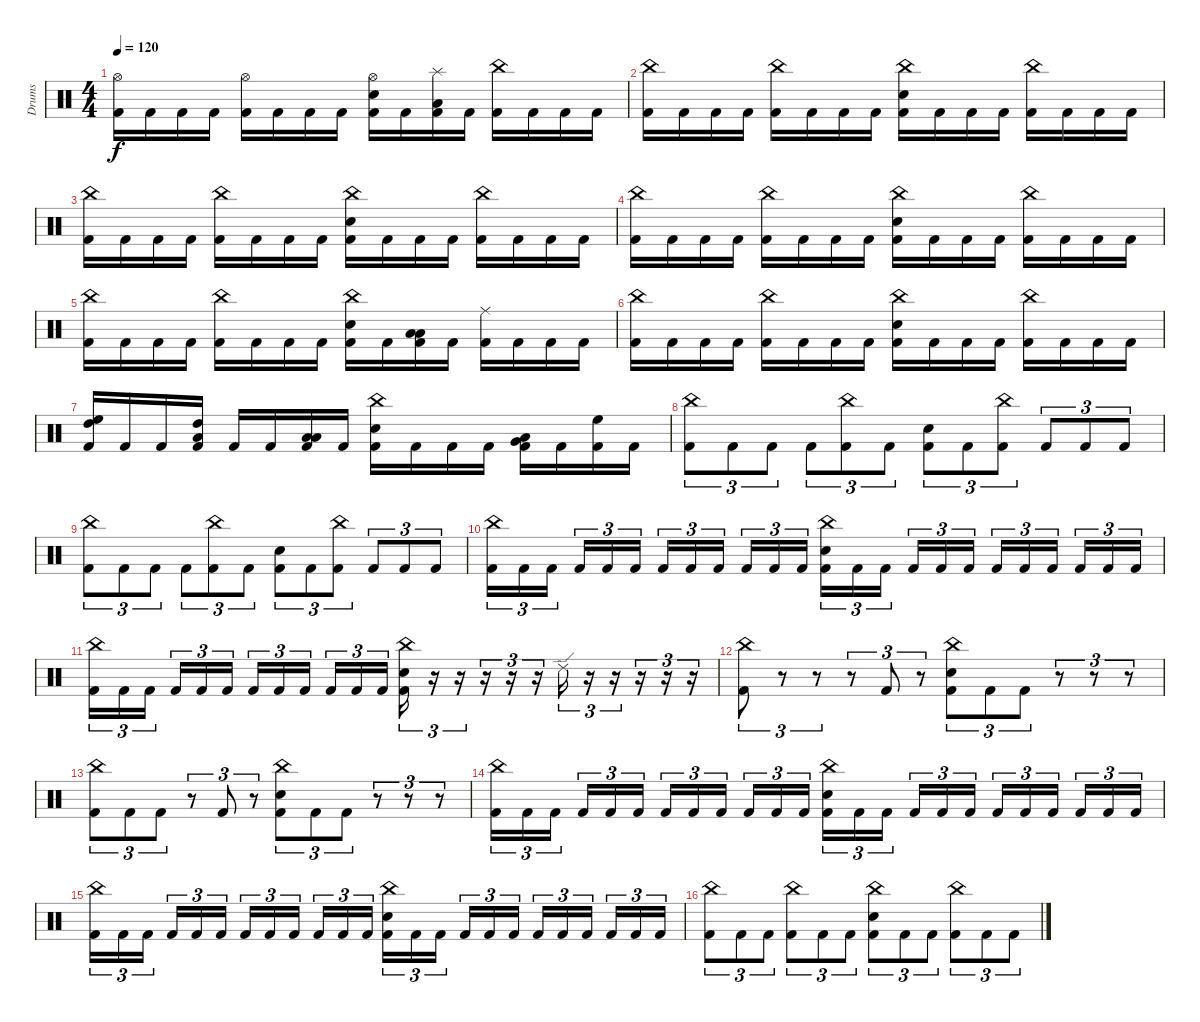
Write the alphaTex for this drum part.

\track ("Drums" "Drums") {instrument percussion}
\staff {score}
\articulation defaults
\ts (4 4)
\tempo 120
\clef neutral
\ks c
("Hi-Hat (open)" "Kick (hit) 2").16{dy f} "Kick (hit) 2".16 "Kick (hit) 2".16 "Kick (hit) 2".16 ("Hi-Hat (open)" "Kick (hit) 2").16 "Kick (hit) 2".16 "Kick (hit) 2".16 "Kick (hit) 2".16 ("Hi-Hat (open)" "Snare (hit) 2" "Kick (hit) 2").16 "Kick (hit) 2".16 ("Splash (hit)" "Low Floor Tom (hit)" "Kick (hit) 2").16 "Kick (hit) 2".16 ("China (hit)" "Kick (hit) 2").16 "Kick (hit) 2".16 "Kick (hit) 2".16 "Kick (hit) 2".16 |
("China (hit)" "Kick (hit) 2").16 "Kick (hit) 2".16 "Kick (hit) 2".16 "Kick (hit) 2".16 ("China (hit)" "Kick (hit) 2").16 "Kick (hit) 2".16 "Kick (hit) 2".16 "Kick (hit) 2".16 ("China (hit)" "Snare (hit) 2" "Kick (hit) 2").16 "Kick (hit) 2".16 "Kick (hit) 2".16 "Kick (hit) 2".16 ("China (hit)" "Kick (hit) 2").16 "Kick (hit) 2".16 "Kick (hit) 2".16 "Kick (hit) 2".16 |
("China (hit)" "Kick (hit) 2").16 "Kick (hit) 2".16 "Kick (hit) 2".16 "Kick (hit) 2".16 ("China (hit)" "Kick (hit) 2").16 "Kick (hit) 2".16 "Kick (hit) 2".16 "Kick (hit) 2".16 ("China (hit)" "Snare (hit) 2" "Kick (hit) 2").16 "Kick (hit) 2".16 "Kick (hit) 2".16 "Kick (hit) 2".16 ("China (hit)" "Kick (hit) 2").16 "Kick (hit) 2".16 "Kick (hit) 2".16 "Kick (hit) 2".16 |
("China (hit)" "Kick (hit) 2").16 "Kick (hit) 2".16 "Kick (hit) 2".16 "Kick (hit) 2".16 ("China (hit)" "Kick (hit) 2").16 "Kick (hit) 2".16 "Kick (hit) 2".16 "Kick (hit) 2".16 ("China (hit)" "Snare (hit) 2" "Kick (hit) 2").16 "Kick (hit) 2".16 "Kick (hit) 2".16 "Kick (hit) 2".16 ("China (hit)" "Kick (hit) 2").16 "Kick (hit) 2".16 "Kick (hit) 2".16 "Kick (hit) 2".16 |
("China (hit)" "Kick (hit) 2").16 "Kick (hit) 2".16 "Kick (hit) 2".16 "Kick (hit) 2".16 ("China (hit)" "Kick (hit) 2").16 "Kick (hit) 2".16 "Kick (hit) 2".16 "Kick (hit) 2".16 ("China (hit)" "Snare (hit) 2" "Kick (hit) 2").16 "Kick (hit) 2".16 ("Low Floor Tom (hit)" "Low Tom (hit)" "Kick (hit) 2").16 "Kick (hit) 2".16 ("Ride (middle)" "Kick (hit) 2").16 "Kick (hit) 2".16 "Kick (hit) 2".16 "Kick (hit) 2".16 |
("China (hit)" "Kick (hit) 2").16 "Kick (hit) 2".16 "Kick (hit) 2".16 "Kick (hit) 2".16 ("China (hit)" "Kick (hit) 2").16 "Kick (hit) 2".16 "Kick (hit) 2".16 "Kick (hit) 2".16 ("China (hit)" "Snare (hit) 2" "Kick (hit) 2").16 "Kick (hit) 2".16 "Kick (hit) 2".16 "Kick (hit) 2".16 ("China (hit)" "Kick (hit) 2").16 "Kick (hit) 2".16 "Kick (hit) 2".16 "Kick (hit) 2".16 |
("High Floor Tom (hit)" "High Tom (hit)" "Kick (hit) 2").16 "Kick (hit) 2".16 "Kick (hit) 2".16 ("High Tom (hit)" "Low Tom (hit)" "Kick (hit) 2").16 "Kick (hit) 2".16 "Kick (hit) 2".16 ("Low Tom (hit)" "Low Floor Tom (hit)" "Kick (hit) 2").16 "Kick (hit) 2".16 ("China (hit)" "Snare (hit) 2" "Kick (hit) 2").16 "Kick (hit) 2".16 "Kick (hit) 2".16 "Kick (hit) 2".16 ("Low Floor Tom (hit)" "Very Low Tom (hit)" "Kick (hit) 2").16 "Kick (hit) 2".16 ("High Floor Tom (hit)" "Kick (hit) 2").16 "Kick (hit) 2".16 |
("China (hit)" "Kick (hit) 2").8{tu (3 2)} "Kick (hit) 2".8{tu (3 2)} "Kick (hit) 2".8{tu (3 2)} "Kick (hit) 2".8{tu (3 2)} ("China (hit)" "Kick (hit) 2").8{tu (3 2)} "Kick (hit) 2".8{tu (3 2)} ("Snare (hit) 2" "Kick (hit) 2").8{tu (3 2)} "Kick (hit) 2".8{tu (3 2)} ("China (hit)" "Kick (hit) 2").8{tu (3 2)} "Kick (hit) 2".8{tu (3 2)} "Kick (hit) 2".8{tu (3 2)} "Kick (hit) 2".8{tu (3 2)} |
("China (hit)" "Kick (hit) 2").8{tu (3 2)} "Kick (hit) 2".8{tu (3 2)} "Kick (hit) 2".8{tu (3 2)} "Kick (hit) 2".8{tu (3 2)} ("China (hit)" "Kick (hit) 2").8{tu (3 2)} "Kick (hit) 2".8{tu (3 2)} ("Snare (hit) 2" "Kick (hit) 2").8{tu (3 2)} "Kick (hit) 2".8{tu (3 2)} ("China (hit)" "Kick (hit) 2").8{tu (3 2)} "Kick (hit) 2".8{tu (3 2)} "Kick (hit) 2".8{tu (3 2)} "Kick (hit) 2".8{tu (3 2)} |
("China (hit)" "Kick (hit) 2").16{tu (3 2)} "Kick (hit) 2".16{tu (3 2)} "Kick (hit) 2".16{tu (3 2) beam splitsecondary} "Kick (hit) 2".16{tu (3 2)} "Kick (hit) 2".16{tu (3 2)} "Kick (hit) 2".16{tu (3 2)} "Kick (hit) 2".16{tu (3 2)} "Kick (hit) 2".16{tu (3 2)} "Kick (hit) 2".16{tu (3 2) beam splitsecondary} "Kick (hit) 2".16{tu (3 2)} "Kick (hit) 2".16{tu (3 2)} "Kick (hit) 2".16{tu (3 2)} ("China (hit)" "Snare (hit) 2" "Kick (hit) 2").16{tu (3 2)} "Kick (hit) 2".16{tu (3 2)} "Kick (hit) 2".16{tu (3 2) beam splitsecondary} "Kick (hit) 2".16{tu (3 2)} "Kick (hit) 2".16{tu (3 2)} "Kick (hit) 2".16{tu (3 2)} "Kick (hit) 2".16{tu (3 2)} "Kick (hit) 2".16{tu (3 2)} "Kick (hit) 2".16{tu (3 2) beam splitsecondary} "Kick (hit) 2".16{tu (3 2)} "Kick (hit) 2".16{tu (3 2)} "Kick (hit) 2".16{tu (3 2)} |
("China (hit)" "Kick (hit) 2").16{tu (3 2)} "Kick (hit) 2".16{tu (3 2)} "Kick (hit) 2".16{tu (3 2) beam splitsecondary} "Kick (hit) 2".16{tu (3 2)} "Kick (hit) 2".16{tu (3 2)} "Kick (hit) 2".16{tu (3 2)} "Kick (hit) 2".16{tu (3 2)} "Kick (hit) 2".16{tu (3 2)} "Kick (hit) 2".16{tu (3 2) beam splitsecondary} "Kick (hit) 2".16{tu (3 2)} "Kick (hit) 2".16{tu (3 2)} "Kick (hit) 2".16{tu (3 2)} ("China (hit)" "Snare (hit) 2" "Kick (hit) 2").16{tu (3 2)} r.16{tu (3 2)} r.16{tu (3 2)} r.16{tu (3 2)} r.16{tu (3 2)} r.16{tu (3 2)} "Ride (edge) 2".16{tu (3 2)} r.16{tu (3 2)} r.16{tu (3 2)} r.16{tu (3 2)} r.16{tu (3 2)} r.16{tu (3 2)} |
("China (hit)" "Kick (hit) 2").8{tu (3 2)} r.8{tu (3 2)} r.8{tu (3 2)} r.8{tu (3 2)} "Kick (hit) 2".8{tu (3 2)} r.8{tu (3 2)} ("China (hit)" "Snare (hit) 2" "Kick (hit) 2").8{tu (3 2)} "Kick (hit) 2".8{tu (3 2)} "Kick (hit) 2".8{tu (3 2)} r.8{tu (3 2)} r.8{tu (3 2)} r.8{tu (3 2)} |
("China (hit)" "Kick (hit) 2").8{tu (3 2)} "Kick (hit) 2".8{tu (3 2)} "Kick (hit) 2".8{tu (3 2)} r.8{tu (3 2)} "Kick (hit) 2".8{tu (3 2)} r.8{tu (3 2)} ("China (hit)" "Snare (hit) 2" "Kick (hit) 2").8{tu (3 2)} "Kick (hit) 2".8{tu (3 2)} "Kick (hit) 2".8{tu (3 2)} r.8{tu (3 2)} r.8{tu (3 2)} r.8{tu (3 2)} |
("China (hit)" "Kick (hit) 2").16{tu (3 2)} "Kick (hit) 2".16{tu (3 2)} "Kick (hit) 2".16{tu (3 2) beam splitsecondary} "Kick (hit) 2".16{tu (3 2)} "Kick (hit) 2".16{tu (3 2)} "Kick (hit) 2".16{tu (3 2)} "Kick (hit) 2".16{tu (3 2)} "Kick (hit) 2".16{tu (3 2)} "Kick (hit) 2".16{tu (3 2) beam splitsecondary} "Kick (hit) 2".16{tu (3 2)} "Kick (hit) 2".16{tu (3 2)} "Kick (hit) 2".16{tu (3 2)} ("China (hit)" "Snare (hit) 2" "Kick (hit) 2").16{tu (3 2)} "Kick (hit) 2".16{tu (3 2)} "Kick (hit) 2".16{tu (3 2) beam splitsecondary} "Kick (hit) 2".16{tu (3 2)} "Kick (hit) 2".16{tu (3 2)} "Kick (hit) 2".16{tu (3 2)} "Kick (hit) 2".16{tu (3 2)} "Kick (hit) 2".16{tu (3 2)} "Kick (hit) 2".16{tu (3 2) beam splitsecondary} "Kick (hit) 2".16{tu (3 2)} "Kick (hit) 2".16{tu (3 2)} "Kick (hit) 2".16{tu (3 2)} |
("China (hit)" "Kick (hit) 2").16{tu (3 2)} "Kick (hit) 2".16{tu (3 2)} "Kick (hit) 2".16{tu (3 2) beam splitsecondary} "Kick (hit) 2".16{tu (3 2)} "Kick (hit) 2".16{tu (3 2)} "Kick (hit) 2".16{tu (3 2)} "Kick (hit) 2".16{tu (3 2)} "Kick (hit) 2".16{tu (3 2)} "Kick (hit) 2".16{tu (3 2) beam splitsecondary} "Kick (hit) 2".16{tu (3 2)} "Kick (hit) 2".16{tu (3 2)} "Kick (hit) 2".16{tu (3 2)} ("China (hit)" "Snare (hit) 2" "Kick (hit) 2").16{tu (3 2)} "Kick (hit) 2".16{tu (3 2)} "Kick (hit) 2".16{tu (3 2) beam splitsecondary} "Kick (hit) 2".16{tu (3 2)} "Kick (hit) 2".16{tu (3 2)} "Kick (hit) 2".16{tu (3 2)} "Kick (hit) 2".16{tu (3 2)} "Kick (hit) 2".16{tu (3 2)} "Kick (hit) 2".16{tu (3 2) beam splitsecondary} "Kick (hit) 2".16{tu (3 2)} "Kick (hit) 2".16{tu (3 2)} "Kick (hit) 2".16{tu (3 2)} |
("China (hit)" "Kick (hit) 2").8{tu (3 2)} "Kick (hit) 2".8{tu (3 2)} "Kick (hit) 2".8{tu (3 2)} ("China (hit)" "Kick (hit) 2").8{tu (3 2)} "Kick (hit) 2".8{tu (3 2)} "Kick (hit) 2".8{tu (3 2)} ("China (hit)" "Snare (hit) 2" "Kick (hit) 2").8{tu (3 2)} "Kick (hit) 2".8{tu (3 2)} "Kick (hit) 2".8{tu (3 2)} ("China (hit)" "Kick (hit) 2").8{tu (3 2)} "Kick (hit) 2".8{tu (3 2)} "Kick (hit) 2".8{tu (3 2)}
